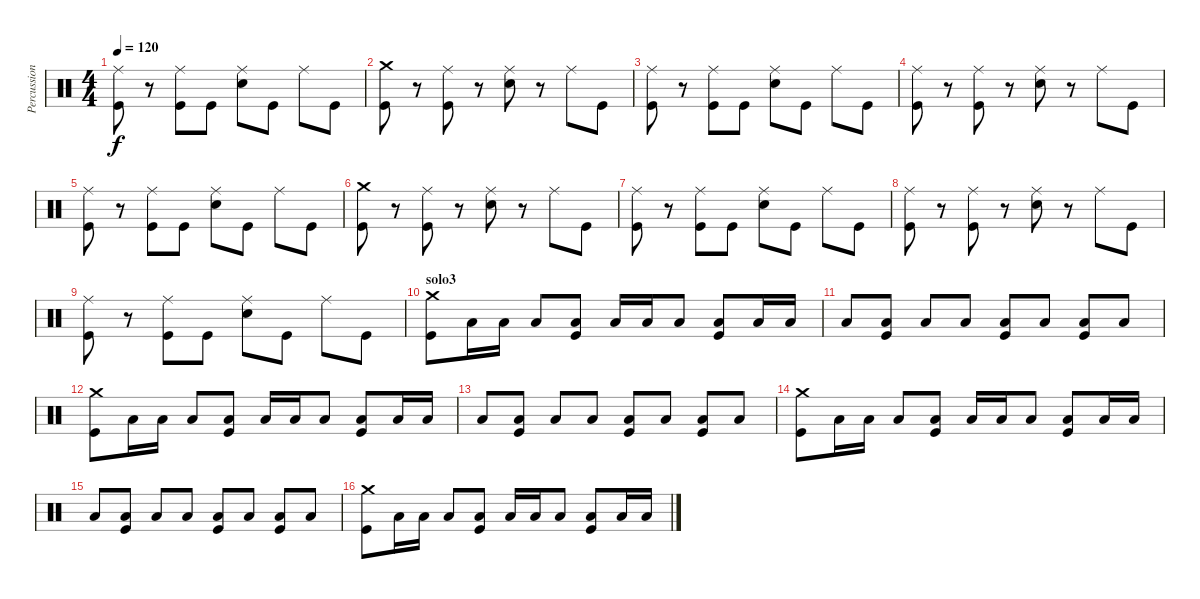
\track ("Percussion" "Percussion") {instrument percussion}
\staff {score}
\articulation defaults
\ts (4 4)
\tempo 120
\clef neutral
\ks c
("Ride (middle)" "Kick (hit)").8{dy f} r.8 ("Ride (middle)" "Kick (hit)").8 "Kick (hit)".8 ("Ride (middle)" "Electric Snare (hit)").8 "Kick (hit)".8 "Ride (middle)".8 "Kick (hit)".8 |
("Crash medium (hit)" "Kick (hit)").8 r.8 ("Ride (middle)" "Kick (hit)").8 r.8 ("Ride (middle)" "Electric Snare (hit)").8 r.8 "Ride (middle)".8 "Kick (hit)".8 |
("Ride (middle)" "Kick (hit)").8 r.8 ("Ride (middle)" "Kick (hit)").8 "Kick (hit)".8 ("Ride (middle)" "Electric Snare (hit)").8 "Kick (hit)".8 "Ride (middle)".8 "Kick (hit)".8 |
("Ride (middle)" "Kick (hit)").8 r.8 ("Ride (middle)" "Kick (hit)").8 r.8 ("Ride (middle)" "Electric Snare (hit)").8 r.8 "Ride (middle)".8 "Kick (hit)".8 |
("Ride (middle)" "Kick (hit)").8 r.8 ("Ride (middle)" "Kick (hit)").8 "Kick (hit)".8 ("Ride (middle)" "Electric Snare (hit)").8 "Kick (hit)".8 "Ride (middle)".8 "Kick (hit)".8 |
("Crash medium (hit)" "Kick (hit)").8 r.8 ("Ride (middle)" "Kick (hit)").8 r.8 ("Ride (middle)" "Electric Snare (hit)").8 r.8 "Ride (middle)".8 "Kick (hit)".8 |
("Ride (middle)" "Kick (hit)").8 r.8 ("Ride (middle)" "Kick (hit)").8 "Kick (hit)".8 ("Ride (middle)" "Electric Snare (hit)").8 "Kick (hit)".8 "Ride (middle)".8 "Kick (hit)".8 |
("Ride (middle)" "Kick (hit)").8 r.8 ("Ride (middle)" "Kick (hit)").8 r.8 ("Ride (middle)" "Electric Snare (hit)").8 r.8 "Ride (middle)".8 "Kick (hit)".8 |
("Ride (middle)" "Kick (hit)").8 r.8 ("Ride (middle)" "Kick (hit)").8 "Kick (hit)".8 ("Ride (middle)" "Electric Snare (hit)").8 "Kick (hit)".8 "Ride (middle)".8 "Kick (hit)".8 |
\section ("" "solo3")
("Crash medium (hit)" "Kick (hit)").8 "Low Floor Tom (hit)".16 "Low Floor Tom (hit)".16 "Low Floor Tom (hit)".8 ("Low Floor Tom (hit)" "Kick (hit)").8 "Low Floor Tom (hit)".16 "Low Floor Tom (hit)".16 "Low Floor Tom (hit)".8 ("Low Floor Tom (hit)" "Kick (hit)").8 "Low Floor Tom (hit)".16 "Low Floor Tom (hit)".16 |
"Low Floor Tom (hit)".8 ("Low Floor Tom (hit)" "Kick (hit)").8 "Low Floor Tom (hit)".8 "Low Floor Tom (hit)".8 ("Low Floor Tom (hit)" "Kick (hit)").8 "Low Floor Tom (hit)".8 ("Low Floor Tom (hit)" "Kick (hit)").8 "Low Floor Tom (hit)".8 |
("Crash medium (hit)" "Kick (hit)").8 "Low Floor Tom (hit)".16 "Low Floor Tom (hit)".16 "Low Floor Tom (hit)".8 ("Low Floor Tom (hit)" "Kick (hit)").8 "Low Floor Tom (hit)".16 "Low Floor Tom (hit)".16 "Low Floor Tom (hit)".8 ("Low Floor Tom (hit)" "Kick (hit)").8 "Low Floor Tom (hit)".16 "Low Floor Tom (hit)".16 |
"Low Floor Tom (hit)".8 ("Low Floor Tom (hit)" "Kick (hit)").8 "Low Floor Tom (hit)".8 "Low Floor Tom (hit)".8 ("Low Floor Tom (hit)" "Kick (hit)").8 "Low Floor Tom (hit)".8 ("Low Floor Tom (hit)" "Kick (hit)").8 "Low Floor Tom (hit)".8 |
("Crash medium (hit)" "Kick (hit)").8 "Low Floor Tom (hit)".16 "Low Floor Tom (hit)".16 "Low Floor Tom (hit)".8 ("Low Floor Tom (hit)" "Kick (hit)").8 "Low Floor Tom (hit)".16 "Low Floor Tom (hit)".16 "Low Floor Tom (hit)".8 ("Low Floor Tom (hit)" "Kick (hit)").8 "Low Floor Tom (hit)".16 "Low Floor Tom (hit)".16 |
"Low Floor Tom (hit)".8 ("Low Floor Tom (hit)" "Kick (hit)").8 "Low Floor Tom (hit)".8 "Low Floor Tom (hit)".8 ("Low Floor Tom (hit)" "Kick (hit)").8 "Low Floor Tom (hit)".8 ("Low Floor Tom (hit)" "Kick (hit)").8 "Low Floor Tom (hit)".8 |
("Crash medium (hit)" "Kick (hit)").8 "Low Floor Tom (hit)".16 "Low Floor Tom (hit)".16 "Low Floor Tom (hit)".8 ("Low Floor Tom (hit)" "Kick (hit)").8 "Low Floor Tom (hit)".16 "Low Floor Tom (hit)".16 "Low Floor Tom (hit)".8 ("Low Floor Tom (hit)" "Kick (hit)").8 "Low Floor Tom (hit)".16 "Low Floor Tom (hit)".16
